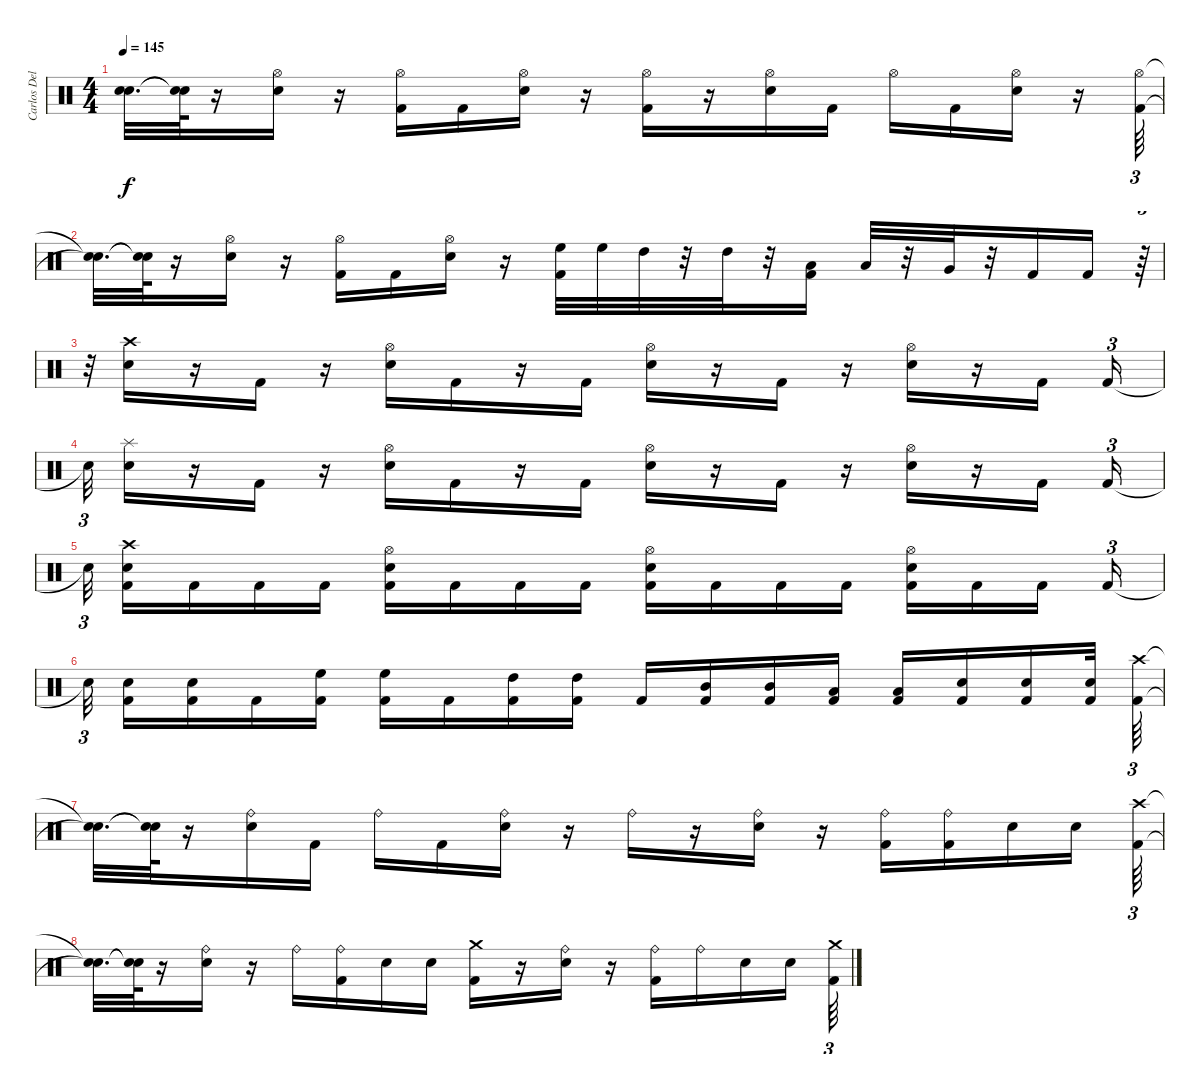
\track ("Carlos Delgado" "Carlos Del") {instrument percussion}
\staff {score}
\articulation defaults
\ts (4 4)
\tempo 145
\clef neutral
\ks c
("Snare (hit)"{t} "Snare (hit)"{t}).32{d dy f} ("Snare (hit)"{t} "Snare (hit)"{t}).64 r.16 ("Hi-Hat (open)" "Electric Snare (hit)").16 r.16 ("Hi-Hat (open)" "Kick (hit) 2").16 "Kick (hit) 2".16 ("Hi-Hat (open)" "Electric Snare (hit)").16 r.16 ("Hi-Hat (open)" "Kick (hit) 2").16 r.16 ("Hi-Hat (open)" "Electric Snare (hit)").16 "Kick (hit) 2".16 "Hi-Hat (open)".16 "Kick (hit) 2".16 ("Hi-Hat (open)" "Electric Snare (hit)").16 r.16 ("Hi-Hat (open)" "Kick (hit) 2").64{tu (3 2)} |
("Snare (hit)"{t} "Snare (hit)"{t}).32{d} ("Snare (hit)"{t} "Snare (hit)"{t}).64 r.16 ("Hi-Hat (open)" "Electric Snare (hit)").16 r.16 ("Hi-Hat (open)" "Kick (hit) 2").16 "Kick (hit) 2".16 ("Hi-Hat (open)" "Electric Snare (hit)").16 r.16 ("High Floor Tom (hit)" "Kick (hit) 2").32 "High Floor Tom (hit)".32 "High Tom (hit)".32 r.32 "High Tom (hit)".32 r.32 ("Kick (hit) 2" "Low Tom (hit)").16 "Low Tom (hit)".32 r.32 "Very Low Tom (hit)".32 r.32 "Kick (hit) 2".16 "Kick (hit) 2".16 r.64{tu (3 2)} |
r.32{tu (3 2)} ("Crash high (hit)" "Electric Snare (hit)").16 r.16 "Kick (hit) 2".16 r.16 ("Electric Snare (hit)" "Hi-Hat (open)").16 "Kick (hit) 2".16 r.16 "Kick (hit) 2".16 ("Hi-Hat (open)" "Electric Snare (hit)").16 r.16 "Kick (hit) 2".16 r.16 ("Hi-Hat (open)" "Electric Snare (hit)").16 r.16 "Kick (hit) 2".16 "Kick (hit) 2".16{tu (3 2)} |
"Snare (hit)"{t}.32{tu (3 2)} ("Splash (hit)" "Electric Snare (hit)").16 r.16 "Kick (hit) 2".16 r.16 ("Hi-Hat (open)" "Electric Snare (hit)").16 "Kick (hit) 2".16 r.16 "Kick (hit) 2".16 ("Electric Snare (hit)" "Hi-Hat (open)").16 r.16 "Kick (hit) 2".16 r.16 ("Electric Snare (hit)" "Hi-Hat (open)").16 r.16 "Kick (hit) 2".16 "Kick (hit) 2".16{tu (3 2)} |
"Snare (hit)"{t}.32{tu (3 2) beam splitsecondary} ("Crash high (hit)" "Electric Snare (hit)" "Kick (hit) 2").16 "Kick (hit) 2".16 "Kick (hit) 2".16 "Kick (hit) 2".16 ("Electric Snare (hit)" "Hi-Hat (open)" "Kick (hit) 2").16 "Kick (hit) 2".16 "Kick (hit) 2".16 "Kick (hit) 2".16 ("Hi-Hat (open)" "Electric Snare (hit)" "Kick (hit) 2").16 "Kick (hit) 2".16 "Kick (hit) 2".16 "Kick (hit) 2".16 ("Kick (hit) 2" "Electric Snare (hit)" "Hi-Hat (open)").16 "Kick (hit) 2".16 "Kick (hit) 2".16{beam splitsecondary} "Kick (hit) 2".16{tu (3 2)} |
"Snare (hit)"{t}.32{tu (3 2) beam splitsecondary} ("Electric Snare (hit)" "Kick (hit) 2").16 ("Electric Snare (hit)" "Kick (hit) 2").16 "Kick (hit) 2".16 ("Kick (hit) 2" "High Floor Tom (hit)").16 ("Kick (hit) 2" "High Floor Tom (hit)").16 "Kick (hit) 2".16 ("Kick (hit) 2" "High Tom (hit)").16 ("High Tom (hit)" "Kick (hit) 2").16 "Kick (hit) 2".16 ("Kick (hit) 2" "Mid Tom (hit)").16 ("Mid Tom (hit)" "Kick (hit) 2").16 ("Kick (hit) 2" "Low Tom (hit)").16 ("Kick (hit) 2" "Low Tom (hit)").16 ("Kick (hit) 2" "Electric Snare (hit)").16 ("Kick (hit) 2" "Electric Snare (hit)").16 ("Kick (hit) 2" "Electric Snare (hit)").32 ("Crash high (hit)" "Kick (hit) 2").64{tu (3 2)} |
("Snare (hit)"{t} "Snare (hit)"{t}).32{d} ("Snare (hit)"{t} "Snare (hit)"{t}).64 r.16 ("Ride (bell)" "Electric Snare (hit)").16 "Kick (hit) 2".16 "Ride (bell)".16 "Kick (hit) 2".16 ("Ride (bell)" "Electric Snare (hit)").16 r.16 "Ride (bell)".16 r.16 ("Ride (bell)" "Electric Snare (hit)").16 r.16 ("Kick (hit) 2" "Ride (bell)").16 ("Kick (hit) 2" "Ride (bell)").16 "Electric Snare (hit)".16 "Electric Snare (hit)".16 ("Crash high (hit)" "Kick (hit) 2").64{tu (3 2)} |
("Snare (hit)"{t} "Snare (hit)"{t}).32{d} ("Snare (hit)"{t} "Snare (hit)"{t}).64 r.16 ("Ride (bell)" "Electric Snare (hit)").16 r.16 "Ride (bell)".16 ("Ride (bell)" "Kick (hit) 2").16 "Electric Snare (hit)".16 "Electric Snare (hit)".16 ("Crash medium (hit)" "Kick (hit) 2").16 r.16 ("Ride (bell)" "Electric Snare (hit)").16 r.16 ("Kick (hit) 2" "Ride (bell)").16 "Ride (bell)".16 "Electric Snare (hit)".16 "Electric Snare (hit)".16 ("Kick (hit) 2" "Crash medium (hit)").64{tu (3 2)}
